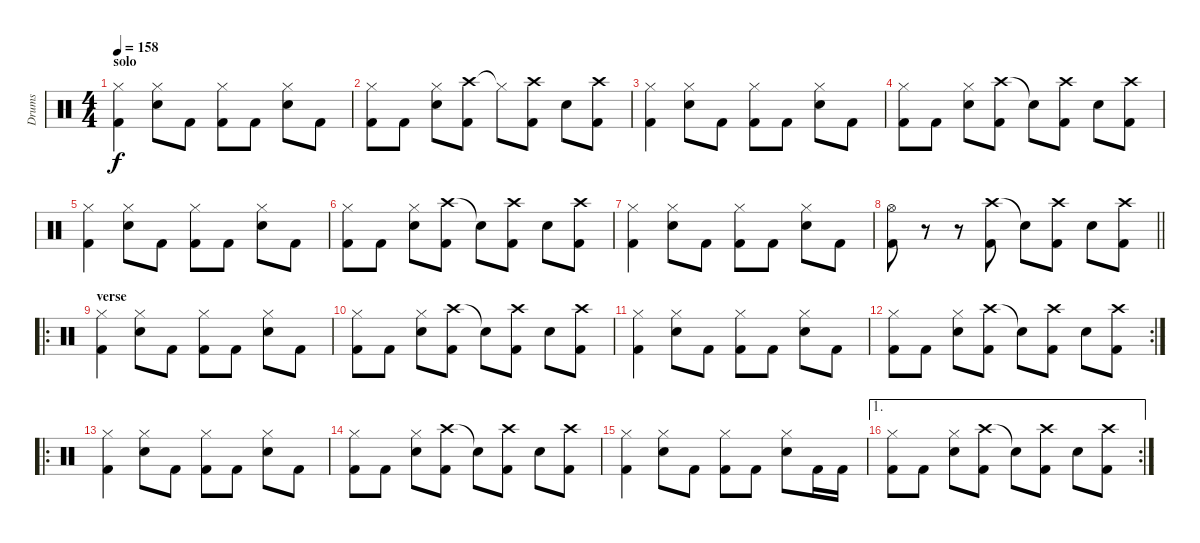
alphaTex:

\track ("Drums" "Drums") {instrument percussion}
\staff {score}
\articulation defaults
\ts (4 4)
\section ("" "solo")
\tempo 158
\clef neutral
\ks c
("Hi-Hat (closed)" "Kick (hit) 2").4{dy f} ("Hi-Hat (closed)" "Electric Snare (hit)").8 "Kick (hit) 2".8 ("Hi-Hat (closed)" "Kick (hit) 2").8 "Kick (hit) 2".8 ("Hi-Hat (closed)" "Electric Snare (hit)").8 "Kick (hit) 2".8 |
("Hi-Hat (closed)" "Kick (hit) 2").8 "Kick (hit) 2".8 ("Hi-Hat (closed)" "Electric Snare (hit)").8 ("Crash high (hit)" "Kick (hit) 2").8 "Hi-Hat (closed)"{t}.8 ("Crash high (hit)" "Kick (hit) 2").8 "Electric Snare (hit)".8 ("Crash high (hit)" "Kick (hit) 2").8 |
("Hi-Hat (closed)" "Kick (hit) 2").4 ("Hi-Hat (closed)" "Electric Snare (hit)").8 "Kick (hit) 2".8 ("Hi-Hat (closed)" "Kick (hit) 2").8 "Kick (hit) 2".8 ("Hi-Hat (closed)" "Electric Snare (hit)").8 "Kick (hit) 2".8 |
("Hi-Hat (closed)" "Kick (hit) 2").8 "Kick (hit) 2".8 ("Hi-Hat (closed)" "Electric Snare (hit)").8 ("Crash high (hit)" "Kick (hit) 2").8 "Snare (hit)"{t}.8 ("Crash high (hit)" "Kick (hit) 2").8 "Electric Snare (hit)".8 ("Crash high (hit)" "Kick (hit) 2").8 |
("Hi-Hat (closed)" "Kick (hit) 2").4 ("Hi-Hat (closed)" "Electric Snare (hit)").8 "Kick (hit) 2".8 ("Hi-Hat (closed)" "Kick (hit) 2").8 "Kick (hit) 2".8 ("Hi-Hat (closed)" "Electric Snare (hit)").8 "Kick (hit) 2".8 |
("Hi-Hat (closed)" "Kick (hit) 2").8 "Kick (hit) 2".8 ("Hi-Hat (closed)" "Electric Snare (hit)").8 ("Crash high (hit)" "Kick (hit) 2").8 "Snare (hit)"{t}.8 ("Crash high (hit)" "Kick (hit) 2").8 "Electric Snare (hit)".8 ("Crash high (hit)" "Kick (hit) 2").8 |
("Hi-Hat (closed)" "Kick (hit) 2").4 ("Hi-Hat (closed)" "Electric Snare (hit)").8 "Kick (hit) 2".8 ("Hi-Hat (closed)" "Kick (hit) 2").8 "Kick (hit) 2".8 ("Hi-Hat (closed)" "Electric Snare (hit)").8 "Kick (hit) 2".8 |
\barLineRight lightlight
("Hi-Hat (open)" "Kick (hit) 2").8 r.8 r.8 ("Crash high (hit)" "Kick (hit) 2").8 "Snare (hit)"{t}.8 ("Crash high (hit)" "Kick (hit) 2").8 "Electric Snare (hit)".8 ("Crash high (hit)" "Kick (hit) 2").8 |
\ro
\section ("" "verse")
("Hi-Hat (closed)" "Kick (hit) 2").4 ("Hi-Hat (closed)" "Electric Snare (hit)").8 "Kick (hit) 2".8 ("Hi-Hat (closed)" "Kick (hit) 2").8 "Kick (hit) 2".8 ("Hi-Hat (closed)" "Electric Snare (hit)").8 "Kick (hit) 2".8 |
("Hi-Hat (closed)" "Kick (hit) 2").8 "Kick (hit) 2".8 ("Hi-Hat (closed)" "Electric Snare (hit)").8 ("Crash high (hit)" "Kick (hit) 2").8 "Snare (hit)"{t}.8 ("Crash high (hit)" "Kick (hit) 2").8 "Electric Snare (hit)".8 ("Crash high (hit)" "Kick (hit) 2").8 |
("Hi-Hat (closed)" "Kick (hit) 2").4 ("Hi-Hat (closed)" "Electric Snare (hit)").8 "Kick (hit) 2".8 ("Hi-Hat (closed)" "Kick (hit) 2").8 "Kick (hit) 2".8 ("Hi-Hat (closed)" "Electric Snare (hit)").8 "Kick (hit) 2".8 |
\rc 2
("Hi-Hat (closed)" "Kick (hit) 2").8 "Kick (hit) 2".8 ("Hi-Hat (closed)" "Electric Snare (hit)").8 ("Crash high (hit)" "Kick (hit) 2").8 "Snare (hit)"{t}.8 ("Crash high (hit)" "Kick (hit) 2").8 "Electric Snare (hit)".8 ("Crash high (hit)" "Kick (hit) 2").8 |
\ro
("Hi-Hat (closed)" "Kick (hit) 2").4 ("Hi-Hat (closed)" "Electric Snare (hit)").8 "Kick (hit) 2".8 ("Hi-Hat (closed)" "Kick (hit) 2").8 "Kick (hit) 2".8 ("Hi-Hat (closed)" "Electric Snare (hit)").8 "Kick (hit) 2".8 |
("Hi-Hat (closed)" "Kick (hit) 2").8 "Kick (hit) 2".8 ("Hi-Hat (closed)" "Electric Snare (hit)").8 ("Crash high (hit)" "Kick (hit) 2").8 "Snare (hit)"{t}.8 ("Crash high (hit)" "Kick (hit) 2").8 "Electric Snare (hit)".8 ("Crash high (hit)" "Kick (hit) 2").8 |
("Hi-Hat (closed)" "Kick (hit) 2").4 ("Hi-Hat (closed)" "Electric Snare (hit)").8 "Kick (hit) 2".8 ("Hi-Hat (closed)" "Kick (hit) 2").8 "Kick (hit) 2".8 ("Hi-Hat (closed)" "Electric Snare (hit)").8 "Kick (hit) 2".16 "Kick (hit) 2".16 |
\ae 1
\rc 2
("Hi-Hat (closed)" "Kick (hit) 2").8 "Kick (hit) 2".8 ("Hi-Hat (closed)" "Electric Snare (hit)").8 ("Crash high (hit)" "Kick (hit) 2").8 "Snare (hit)"{t}.8 ("Crash high (hit)" "Kick (hit) 2").8 "Electric Snare (hit)".8 ("Crash high (hit)" "Kick (hit) 2").8
